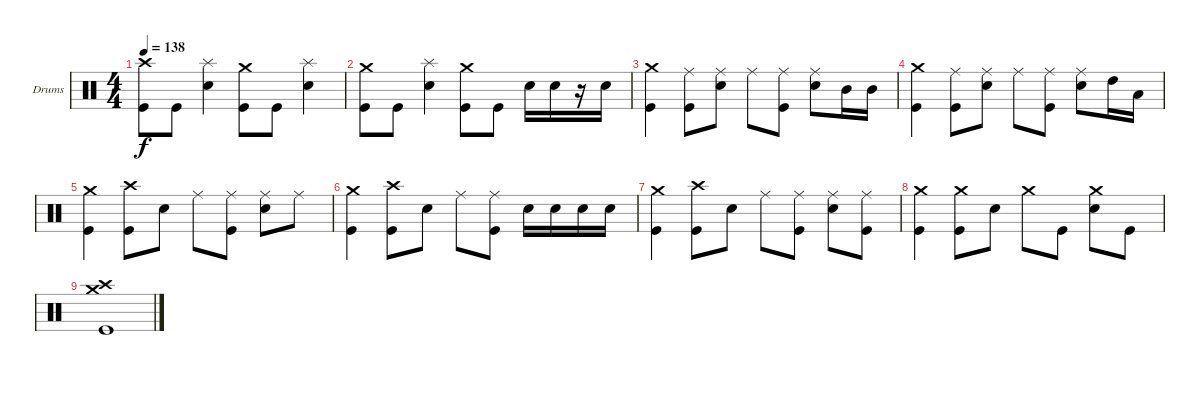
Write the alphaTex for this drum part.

\defaultSystemsLayout 4
\bracketExtendMode groupsimilarinstruments
\firstSystemTrackNameOrientation horizontal
\otherSystemsTrackNameOrientation horizontal
\track ("Drumkit" "Drums") {instrument percussion}
\staff {score}
\articulation defaults
\ts (4 4)
\tempo 138
\clef neutral
\ks c
("Crash high (hit)" "Kick (hit)").8{dy f} "Kick (hit)".8 ("Snare (hit) 2" "Splash (hit)").4 ("Kick (hit)" "Crash medium (hit)").8 "Kick (hit)".8 ("Snare (hit) 2" "Splash (hit)").4 |
("Kick (hit)" "Crash medium (hit)").8 "Kick (hit)".8 ("Snare (hit) 2" "Splash (hit)").4 ("Kick (hit)" "Crash medium (hit)").8 "Kick (hit)".8 "Snare (hit) 2".16 "Snare (hit) 2".16 r.16 "Snare (hit) 2".16 |
("Kick (hit)" "Crash medium (hit)").4 ("Ride (middle)" "Kick (hit)").8 ("Ride (middle)" "Snare (hit) 2").8 "Ride (middle)".8 ("Ride (middle)" "Kick (hit)").8 ("Ride (middle)" "Snare (hit) 2").8 "Mid Tom (hit)".16 "Mid Tom (hit)".16 |
("Kick (hit)" "Crash medium (hit)").4 ("Ride (middle)" "Kick (hit)").8 ("Ride (middle)" "Snare (hit) 2").8 "Ride (middle)".8 ("Ride (middle)" "Kick (hit)").8 ("Ride (middle)" "Snare (hit) 2").8 "High Tom (hit)".16 "Low Tom (hit)".16 |
("Kick (hit)" "Crash medium (hit)").4 ("Kick (hit)" "Crash high (hit)").8 "Snare (hit) 2".8 "Ride (middle)".8 ("Ride (middle)" "Kick (hit)").8 ("Ride (middle)" "Snare (hit) 2").8 "Ride (middle)".8 |
("Kick (hit)" "Crash medium (hit)").4 ("Kick (hit)" "Crash high (hit)").8 "Snare (hit) 2".8 "Ride (middle)".8 ("Ride (middle)" "Kick (hit)").8 "Snare (hit) 2".16 "Snare (hit) 2".16 "Snare (hit) 2".16 "Snare (hit) 2".16 |
("Kick (hit)" "Crash medium (hit)").4 ("Kick (hit)" "Crash high (hit)").8 "Snare (hit) 2".8 "Ride (middle)".8 ("Ride (middle)" "Kick (hit)").8 ("Ride (middle)" "Snare (hit) 2").8 ("Ride (middle)" "Kick (hit)").8 |
("Kick (hit)" "Crash medium (hit)").4 ("Kick (hit)" "Crash medium (hit)").8 "Snare (hit) 2".8 "Crash medium (hit)".8 "Kick (hit)".8 ("Snare (hit) 2" "Crash medium (hit)").8 "Kick (hit)".8 |
("Kick (hit)" "Crash medium (hit)" "Crash high (hit)").1
